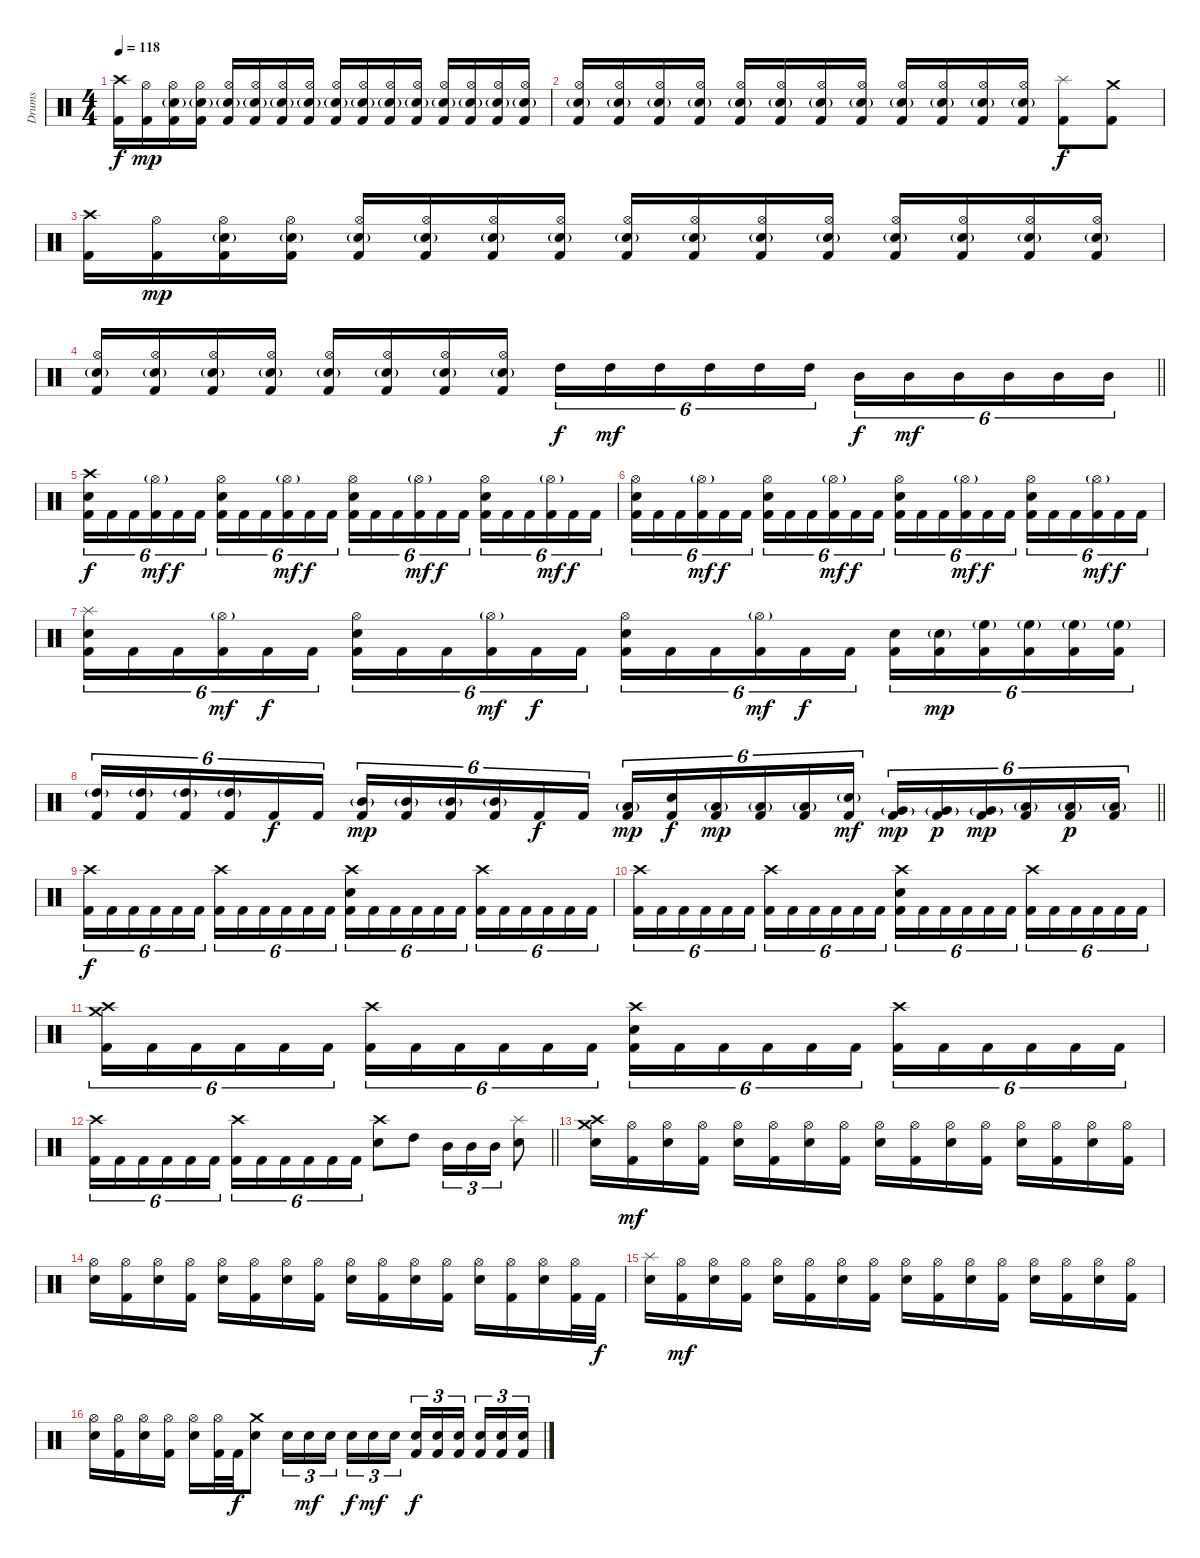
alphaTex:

\track ("Drums" "Drums") {instrument percussion}
\staff {score}
\articulation defaults
\ts (4 4)
\tempo 118
\clef neutral
\ks c
("Crash high (hit)" "Kick (hit) 2").16{dy f} ("Hi-Hat (open)" "Kick (hit) 2").16{dy mp} ("Hi-Hat (open)" "Electric Snare (hit)"{g} "Kick (hit) 2").16 ("Hi-Hat (open)" "Electric Snare (hit)"{g} "Kick (hit) 2").16 ("Hi-Hat (open)" "Electric Snare (hit)"{g} "Kick (hit) 2").16 ("Hi-Hat (open)" "Electric Snare (hit)"{g} "Kick (hit) 2").16 ("Hi-Hat (open)" "Electric Snare (hit)"{g} "Kick (hit) 2").16 ("Hi-Hat (open)" "Electric Snare (hit)"{g} "Kick (hit) 2").16 ("Hi-Hat (open)" "Electric Snare (hit)"{g} "Kick (hit) 2").16 ("Hi-Hat (open)" "Electric Snare (hit)"{g} "Kick (hit) 2").16 ("Hi-Hat (open)" "Electric Snare (hit)"{g} "Kick (hit) 2").16 ("Hi-Hat (open)" "Electric Snare (hit)"{g} "Kick (hit) 2").16 ("Hi-Hat (open)" "Electric Snare (hit)"{g} "Kick (hit) 2").16 ("Hi-Hat (open)" "Electric Snare (hit)"{g} "Kick (hit) 2").16 ("Hi-Hat (open)" "Electric Snare (hit)"{g} "Kick (hit) 2").16 ("Hi-Hat (open)" "Electric Snare (hit)"{g} "Kick (hit) 2").16 |
("Hi-Hat (open)" "Electric Snare (hit)"{g} "Kick (hit) 2").16 ("Hi-Hat (open)" "Electric Snare (hit)"{g} "Kick (hit) 2").16 ("Hi-Hat (open)" "Electric Snare (hit)"{g} "Kick (hit) 2").16 ("Hi-Hat (open)" "Electric Snare (hit)"{g} "Kick (hit) 2").16 ("Hi-Hat (open)" "Electric Snare (hit)"{g} "Kick (hit) 2").16 ("Hi-Hat (open)" "Electric Snare (hit)"{g} "Kick (hit) 2").16 ("Hi-Hat (open)" "Electric Snare (hit)"{g} "Kick (hit) 2").16 ("Hi-Hat (open)" "Electric Snare (hit)"{g} "Kick (hit) 2").16 ("Hi-Hat (open)" "Electric Snare (hit)"{g} "Kick (hit) 2").16 ("Hi-Hat (open)" "Electric Snare (hit)"{g} "Kick (hit) 2").16 ("Hi-Hat (open)" "Electric Snare (hit)"{g} "Kick (hit) 2").16 ("Hi-Hat (open)" "Electric Snare (hit)"{g} "Kick (hit) 2").16 ("Splash (hit)" "Kick (hit) 2").8{dy f} ("Crash medium (hit)" "Kick (hit) 2").8 |
("Crash high (hit)" "Kick (hit) 2").16 ("Hi-Hat (open)" "Kick (hit) 2").16{dy mp} ("Hi-Hat (open)" "Electric Snare (hit)"{g} "Kick (hit) 2").16 ("Hi-Hat (open)" "Electric Snare (hit)"{g} "Kick (hit) 2").16 ("Hi-Hat (open)" "Electric Snare (hit)"{g} "Kick (hit) 2").16 ("Hi-Hat (open)" "Electric Snare (hit)"{g} "Kick (hit) 2").16 ("Hi-Hat (open)" "Electric Snare (hit)"{g} "Kick (hit) 2").16 ("Hi-Hat (open)" "Electric Snare (hit)"{g} "Kick (hit) 2").16 ("Hi-Hat (open)" "Electric Snare (hit)"{g} "Kick (hit) 2").16 ("Hi-Hat (open)" "Electric Snare (hit)"{g} "Kick (hit) 2").16 ("Hi-Hat (open)" "Electric Snare (hit)"{g} "Kick (hit) 2").16 ("Hi-Hat (open)" "Electric Snare (hit)"{g} "Kick (hit) 2").16 ("Hi-Hat (open)" "Electric Snare (hit)"{g} "Kick (hit) 2").16 ("Hi-Hat (open)" "Electric Snare (hit)"{g} "Kick (hit) 2").16 ("Hi-Hat (open)" "Electric Snare (hit)"{g} "Kick (hit) 2").16 ("Hi-Hat (open)" "Electric Snare (hit)"{g} "Kick (hit) 2").16 |
\barLineRight lightlight
("Hi-Hat (open)" "Electric Snare (hit)"{g} "Kick (hit) 2").16 ("Hi-Hat (open)" "Electric Snare (hit)"{g} "Kick (hit) 2").16 ("Hi-Hat (open)" "Electric Snare (hit)"{g} "Kick (hit) 2").16 ("Hi-Hat (open)" "Electric Snare (hit)"{g} "Kick (hit) 2").16 ("Hi-Hat (open)" "Electric Snare (hit)"{g} "Kick (hit) 2").16 ("Hi-Hat (open)" "Electric Snare (hit)"{g} "Kick (hit) 2").16 ("Hi-Hat (open)" "Electric Snare (hit)"{g} "Kick (hit) 2").16 ("Hi-Hat (open)" "Electric Snare (hit)"{g} "Kick (hit) 2").16 "High Tom (hit)".16{tu (6 4) dy f} "High Tom (hit)".16{tu (6 4) dy mf} "High Tom (hit)".16{tu (6 4)} "High Tom (hit)".16{tu (6 4)} "High Tom (hit)".16{tu (6 4)} "High Tom (hit)".16{tu (6 4)} "Mid Tom (hit)".16{tu (6 4) dy f} "Mid Tom (hit)".16{tu (6 4) dy mf} "Mid Tom (hit)".16{tu (6 4)} "Mid Tom (hit)".16{tu (6 4)} "Mid Tom (hit)".16{tu (6 4)} "Mid Tom (hit)".16{tu (6 4)} |
("Crash high (hit)" "Electric Snare (hit)" "Kick (hit) 2").16{tu (6 4) dy f} "Kick (hit) 2".16{tu (6 4)} "Kick (hit) 2".16{tu (6 4)} ("Hi-Hat (open)"{g} "Kick (hit) 2").16{tu (6 4) dy mf} "Kick (hit) 2".16{tu (6 4) dy f} "Kick (hit) 2".16{tu (6 4)} ("Hi-Hat (open)" "Electric Snare (hit)" "Kick (hit) 2").16{tu (6 4)} "Kick (hit) 2".16{tu (6 4)} "Kick (hit) 2".16{tu (6 4)} ("Hi-Hat (open)"{g} "Kick (hit) 2").16{tu (6 4) dy mf} "Kick (hit) 2".16{tu (6 4) dy f} "Kick (hit) 2".16{tu (6 4)} ("Hi-Hat (open)" "Electric Snare (hit)" "Kick (hit) 2").16{tu (6 4)} "Kick (hit) 2".16{tu (6 4)} "Kick (hit) 2".16{tu (6 4)} ("Hi-Hat (open)"{g} "Kick (hit) 2").16{tu (6 4) dy mf} "Kick (hit) 2".16{tu (6 4) dy f} "Kick (hit) 2".16{tu (6 4)} ("Hi-Hat (open)" "Electric Snare (hit)" "Kick (hit) 2").16{tu (6 4)} "Kick (hit) 2".16{tu (6 4)} "Kick (hit) 2".16{tu (6 4)} ("Hi-Hat (open)"{g} "Kick (hit) 2").16{tu (6 4) dy mf} "Kick (hit) 2".16{tu (6 4) dy f} "Kick (hit) 2".16{tu (6 4)} |
("Hi-Hat (open)" "Electric Snare (hit)" "Kick (hit) 2").16{tu (6 4)} "Kick (hit) 2".16{tu (6 4)} "Kick (hit) 2".16{tu (6 4)} ("Hi-Hat (open)"{g} "Kick (hit) 2").16{tu (6 4) dy mf} "Kick (hit) 2".16{tu (6 4) dy f} "Kick (hit) 2".16{tu (6 4)} ("Hi-Hat (open)" "Electric Snare (hit)" "Kick (hit) 2").16{tu (6 4)} "Kick (hit) 2".16{tu (6 4)} "Kick (hit) 2".16{tu (6 4)} ("Hi-Hat (open)"{g} "Kick (hit) 2").16{tu (6 4) dy mf} "Kick (hit) 2".16{tu (6 4) dy f} "Kick (hit) 2".16{tu (6 4)} ("Hi-Hat (open)" "Electric Snare (hit)" "Kick (hit) 2").16{tu (6 4)} "Kick (hit) 2".16{tu (6 4)} "Kick (hit) 2".16{tu (6 4)} ("Hi-Hat (open)"{g} "Kick (hit) 2").16{tu (6 4) dy mf} "Kick (hit) 2".16{tu (6 4) dy f} "Kick (hit) 2".16{tu (6 4)} ("Hi-Hat (open)" "Electric Snare (hit)" "Kick (hit) 2").16{tu (6 4)} "Kick (hit) 2".16{tu (6 4)} "Kick (hit) 2".16{tu (6 4)} ("Hi-Hat (open)"{g} "Kick (hit) 2").16{tu (6 4) dy mf} "Kick (hit) 2".16{tu (6 4) dy f} "Kick (hit) 2".16{tu (6 4)} |
("Splash (hit)" "Electric Snare (hit)" "Kick (hit) 2").16{tu (6 4)} "Kick (hit) 2".16{tu (6 4)} "Kick (hit) 2".16{tu (6 4)} ("Hi-Hat (open)"{g} "Kick (hit) 2").16{tu (6 4) dy mf} "Kick (hit) 2".16{tu (6 4) dy f} "Kick (hit) 2".16{tu (6 4)} ("Hi-Hat (open)" "Electric Snare (hit)" "Kick (hit) 2").16{tu (6 4)} "Kick (hit) 2".16{tu (6 4)} "Kick (hit) 2".16{tu (6 4)} ("Hi-Hat (open)"{g} "Kick (hit) 2").16{tu (6 4) dy mf} "Kick (hit) 2".16{tu (6 4) dy f} "Kick (hit) 2".16{tu (6 4)} ("Hi-Hat (open)" "Electric Snare (hit)" "Kick (hit) 2").16{tu (6 4)} "Kick (hit) 2".16{tu (6 4)} "Kick (hit) 2".16{tu (6 4)} ("Hi-Hat (open)"{g} "Kick (hit) 2").16{tu (6 4) dy mf} "Kick (hit) 2".16{tu (6 4) dy f} "Kick (hit) 2".16{tu (6 4)} ("Electric Snare (hit)" "Kick (hit) 2").16{tu (6 4)} ("Electric Snare (hit)"{g} "Kick (hit) 2").16{tu (6 4) dy mp} ("High Floor Tom (hit)"{g} "Kick (hit) 2").16{tu (6 4)} ("High Floor Tom (hit)"{g} "Kick (hit) 2").16{tu (6 4)} ("High Floor Tom (hit)"{g} "Kick (hit) 2").16{tu (6 4)} ("High Floor Tom (hit)"{g} "Kick (hit) 2").16{tu (6 4)} |
\barLineRight lightlight
("High Tom (hit)"{g} "Kick (hit) 2").16{tu (6 4)} ("High Tom (hit)"{g} "Kick (hit) 2").16{tu (6 4)} ("High Tom (hit)"{g} "Kick (hit) 2").16{tu (6 4)} ("High Tom (hit)"{g} "Kick (hit) 2").16{tu (6 4)} "Kick (hit) 2".16{tu (6 4) dy f} "Kick (hit) 2".16{tu (6 4)} ("Mid Tom (hit)"{g} "Kick (hit) 2").16{tu (6 4) dy mp} ("Mid Tom (hit)"{g} "Kick (hit) 2").16{tu (6 4)} ("Mid Tom (hit)"{g} "Kick (hit) 2").16{tu (6 4)} ("Mid Tom (hit)"{g} "Kick (hit) 2").16{tu (6 4)} "Kick (hit) 2".16{tu (6 4) dy f} "Kick (hit) 2".16{tu (6 4)} ("Low Tom (hit)"{g} "Kick (hit) 2").16{tu (6 4) dy mp} ("Electric Snare (hit)" "Kick (hit) 2").16{tu (6 4) dy f} ("Low Tom (hit)"{g} "Kick (hit) 2").16{tu (6 4) dy mp} ("Low Tom (hit)"{g} "Kick (hit) 2").16{tu (6 4)} ("Low Tom (hit)"{g} "Kick (hit) 2").16{tu (6 4)} ("Electric Snare (hit)"{g} "Kick (hit) 2").16{tu (6 4) dy mf} ("Very Low Tom (hit)"{g} "Kick (hit) 2").16{tu (6 4) dy mp} ("Very Low Tom (hit)"{g} "Kick (hit) 2").16{tu (6 4) dy p} ("Very Low Tom (hit)"{g} "Kick (hit) 2").16{tu (6 4) dy mp} ("Low Floor Tom (hit)"{g} "Kick (hit) 2").16{tu (6 4)} ("Low Floor Tom (hit)"{g} "Kick (hit) 2").16{tu (6 4) dy p} ("Low Floor Tom (hit)"{g} "Kick (hit) 2").16{tu (6 4)} |
("Crash high (hit)" "Kick (hit) 2").16{tu (6 4) dy f} "Kick (hit) 2".16{tu (6 4)} "Kick (hit) 2".16{tu (6 4)} "Kick (hit) 2".16{tu (6 4)} "Kick (hit) 2".16{tu (6 4)} "Kick (hit) 2".16{tu (6 4)} ("Crash high (hit)" "Kick (hit) 2").16{tu (6 4)} "Kick (hit) 2".16{tu (6 4)} "Kick (hit) 2".16{tu (6 4)} "Kick (hit) 2".16{tu (6 4)} "Kick (hit) 2".16{tu (6 4)} "Kick (hit) 2".16{tu (6 4)} ("Crash high (hit)" "Electric Snare (hit)" "Kick (hit) 2").16{tu (6 4)} "Kick (hit) 2".16{tu (6 4)} "Kick (hit) 2".16{tu (6 4)} "Kick (hit) 2".16{tu (6 4)} "Kick (hit) 2".16{tu (6 4)} "Kick (hit) 2".16{tu (6 4)} ("Crash high (hit)" "Kick (hit) 2").16{tu (6 4)} "Kick (hit) 2".16{tu (6 4)} "Kick (hit) 2".16{tu (6 4)} "Kick (hit) 2".16{tu (6 4)} "Kick (hit) 2".16{tu (6 4)} "Kick (hit) 2".16{tu (6 4)} |
("Crash high (hit)" "Kick (hit) 2").16{tu (6 4)} "Kick (hit) 2".16{tu (6 4)} "Kick (hit) 2".16{tu (6 4)} "Kick (hit) 2".16{tu (6 4)} "Kick (hit) 2".16{tu (6 4)} "Kick (hit) 2".16{tu (6 4)} ("Crash high (hit)" "Kick (hit) 2").16{tu (6 4)} "Kick (hit) 2".16{tu (6 4)} "Kick (hit) 2".16{tu (6 4)} "Kick (hit) 2".16{tu (6 4)} "Kick (hit) 2".16{tu (6 4)} "Kick (hit) 2".16{tu (6 4)} ("Crash high (hit)" "Electric Snare (hit)" "Kick (hit) 2").16{tu (6 4)} "Kick (hit) 2".16{tu (6 4)} "Kick (hit) 2".16{tu (6 4)} "Kick (hit) 2".16{tu (6 4)} "Kick (hit) 2".16{tu (6 4)} "Kick (hit) 2".16{tu (6 4)} ("Crash high (hit)" "Kick (hit) 2").16{tu (6 4)} "Kick (hit) 2".16{tu (6 4)} "Kick (hit) 2".16{tu (6 4)} "Kick (hit) 2".16{tu (6 4)} "Kick (hit) 2".16{tu (6 4)} "Kick (hit) 2".16{tu (6 4)} |
("Crash high (hit)" "Crash medium (hit)" "Kick (hit) 2").16{tu (6 4)} "Kick (hit) 2".16{tu (6 4)} "Kick (hit) 2".16{tu (6 4)} "Kick (hit) 2".16{tu (6 4)} "Kick (hit) 2".16{tu (6 4)} "Kick (hit) 2".16{tu (6 4)} ("Crash high (hit)" "Kick (hit) 2").16{tu (6 4)} "Kick (hit) 2".16{tu (6 4)} "Kick (hit) 2".16{tu (6 4)} "Kick (hit) 2".16{tu (6 4)} "Kick (hit) 2".16{tu (6 4)} "Kick (hit) 2".16{tu (6 4)} ("Crash high (hit)" "Electric Snare (hit)" "Kick (hit) 2").16{tu (6 4)} "Kick (hit) 2".16{tu (6 4)} "Kick (hit) 2".16{tu (6 4)} "Kick (hit) 2".16{tu (6 4)} "Kick (hit) 2".16{tu (6 4)} "Kick (hit) 2".16{tu (6 4)} ("Crash high (hit)" "Kick (hit) 2").16{tu (6 4)} "Kick (hit) 2".16{tu (6 4)} "Kick (hit) 2".16{tu (6 4)} "Kick (hit) 2".16{tu (6 4)} "Kick (hit) 2".16{tu (6 4)} "Kick (hit) 2".16{tu (6 4)} |
\barLineRight lightlight
("Crash high (hit)" "Kick (hit) 2").16{tu (6 4)} "Kick (hit) 2".16{tu (6 4)} "Kick (hit) 2".16{tu (6 4)} "Kick (hit) 2".16{tu (6 4)} "Kick (hit) 2".16{tu (6 4)} "Kick (hit) 2".16{tu (6 4)} ("Crash high (hit)" "Kick (hit) 2").16{tu (6 4)} "Kick (hit) 2".16{tu (6 4)} "Kick (hit) 2".16{tu (6 4)} "Kick (hit) 2".16{tu (6 4)} "Kick (hit) 2".16{tu (6 4)} "Kick (hit) 2".16{tu (6 4)} ("Crash high (hit)" "Electric Snare (hit)").8 "High Tom (hit)".8 "Mid Tom (hit)".16{tu (3 2)} "Mid Tom (hit)".16{tu (3 2)} "Mid Tom (hit)".16{tu (3 2)} ("Splash (hit)" "Electric Snare (hit)").8 |
("Crash high (hit)" "Crash medium (hit)" "Electric Snare (hit)").16 ("Hi-Hat (open)" "Kick (hit) 2").16{dy mf} ("Hi-Hat (open)" "Electric Snare (hit)").16 ("Hi-Hat (open)" "Kick (hit) 2").16 ("Hi-Hat (open)" "Electric Snare (hit)").16 ("Hi-Hat (open)" "Kick (hit) 2").16 ("Hi-Hat (open)" "Electric Snare (hit)").16 ("Hi-Hat (open)" "Kick (hit) 2").16 ("Hi-Hat (open)" "Electric Snare (hit)").16 ("Hi-Hat (open)" "Kick (hit) 2").16 ("Hi-Hat (open)" "Electric Snare (hit)").16 ("Hi-Hat (open)" "Kick (hit) 2").16 ("Hi-Hat (open)" "Electric Snare (hit)").16 ("Hi-Hat (open)" "Kick (hit) 2").16 ("Hi-Hat (open)" "Electric Snare (hit)").16 ("Hi-Hat (open)" "Kick (hit) 2").16 |
("Hi-Hat (open)" "Electric Snare (hit)").16 ("Hi-Hat (open)" "Kick (hit) 2").16 ("Hi-Hat (open)" "Electric Snare (hit)").16 ("Hi-Hat (open)" "Kick (hit) 2").16 ("Hi-Hat (open)" "Electric Snare (hit)").16 ("Hi-Hat (open)" "Kick (hit) 2").16 ("Hi-Hat (open)" "Electric Snare (hit)").16 ("Hi-Hat (open)" "Kick (hit) 2").16 ("Hi-Hat (open)" "Electric Snare (hit)").16 ("Hi-Hat (open)" "Kick (hit) 2").16 ("Hi-Hat (open)" "Electric Snare (hit)").16 ("Hi-Hat (open)" "Kick (hit) 2").16 ("Hi-Hat (open)" "Electric Snare (hit)").16 ("Hi-Hat (open)" "Kick (hit) 2").16 ("Hi-Hat (open)" "Electric Snare (hit)").16 ("Hi-Hat (open)" "Kick (hit) 2").32 "Kick (hit) 2".32{dy f} |
("Splash (hit)" "Electric Snare (hit)").16 ("Hi-Hat (open)" "Kick (hit) 2").16{dy mf} ("Hi-Hat (open)" "Electric Snare (hit)").16 ("Hi-Hat (open)" "Kick (hit) 2").16 ("Hi-Hat (open)" "Electric Snare (hit)").16 ("Hi-Hat (open)" "Kick (hit) 2").16 ("Hi-Hat (open)" "Electric Snare (hit)").16 ("Hi-Hat (open)" "Kick (hit) 2").16 ("Hi-Hat (open)" "Electric Snare (hit)").16 ("Hi-Hat (open)" "Kick (hit) 2").16 ("Hi-Hat (open)" "Electric Snare (hit)").16 ("Hi-Hat (open)" "Kick (hit) 2").16 ("Hi-Hat (open)" "Electric Snare (hit)").16 ("Hi-Hat (open)" "Kick (hit) 2").16 ("Hi-Hat (open)" "Electric Snare (hit)").16 ("Hi-Hat (open)" "Kick (hit) 2").16 |
("Hi-Hat (open)" "Electric Snare (hit)").16 ("Hi-Hat (open)" "Kick (hit) 2").16 ("Hi-Hat (open)" "Electric Snare (hit)").16 ("Hi-Hat (open)" "Kick (hit) 2").16 ("Hi-Hat (open)" "Electric Snare (hit)").16 ("Hi-Hat (open)" "Kick (hit) 2").32 "Kick (hit) 2".32{dy f} ("Crash medium (hit)" "Electric Snare (hit)").8 "Electric Snare (hit)".16{tu (3 2)} "Electric Snare (hit)".16{tu (3 2) dy mf} "Electric Snare (hit)".16{tu (3 2)} "Electric Snare (hit)".16{tu (3 2) dy f} "Electric Snare (hit)".16{tu (3 2) dy mf} "Electric Snare (hit)".16{tu (3 2)} ("Electric Snare (hit)" "Kick (hit) 2").16{tu (3 2) dy f} ("Electric Snare (hit)" "Kick (hit) 2").16{tu (3 2)} ("Electric Snare (hit)" "Kick (hit) 2").16{tu (3 2)} ("Electric Snare (hit)" "Kick (hit) 2").16{tu (3 2)} ("Electric Snare (hit)" "Kick (hit) 2").16{tu (3 2)} ("Electric Snare (hit)" "Kick (hit) 2").16{tu (3 2)}
